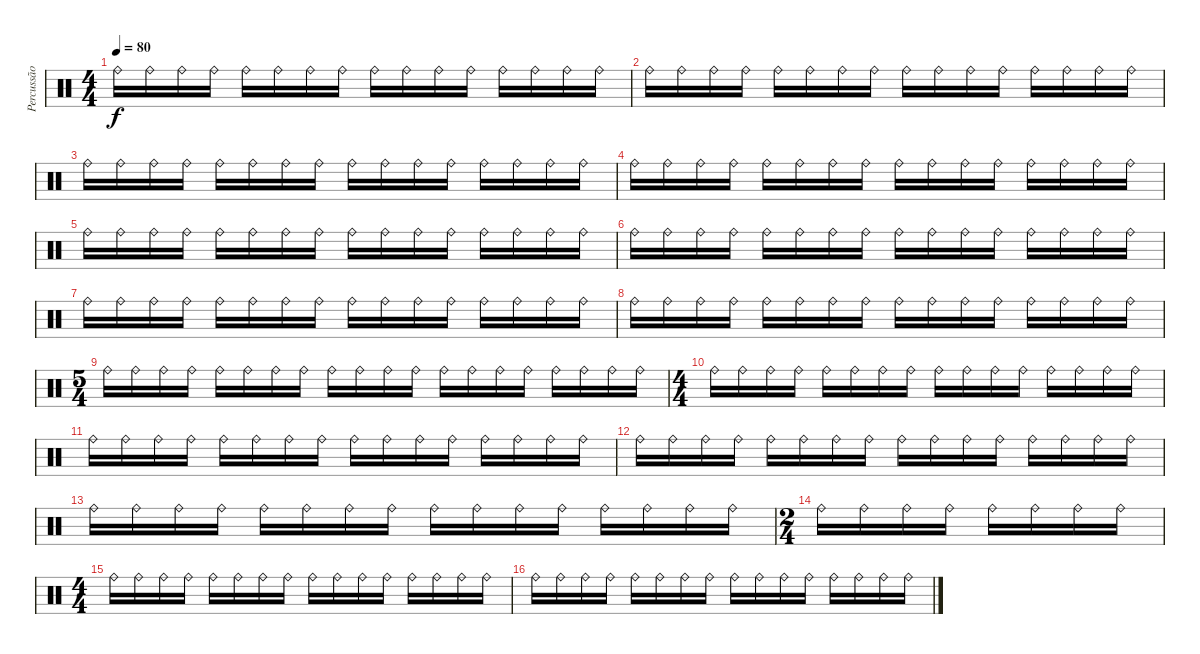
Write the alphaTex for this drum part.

\track ("Percussão" "Percussão") {instrument percussion}
\staff {score}
\articulation defaults
\ts (4 4)
\tempo 80
\clef neutral
\ks c "Ride (bell)".16{dy f} "Ride (bell)".16 "Ride (bell)".16 "Ride (bell)".16 "Ride (bell)".16 "Ride (bell)".16 "Ride (bell)".16 "Ride (bell)".16 "Ride (bell)".16 "Ride (bell)".16 "Ride (bell)".16 "Ride (bell)".16 "Ride (bell)".16 "Ride (bell)".16 "Ride (bell)".16 "Ride (bell)".16
|
"Ride (bell)".16 "Ride (bell)".16 "Ride (bell)".16 "Ride (bell)".16 "Ride (bell)".16 "Ride (bell)".16 "Ride (bell)".16 "Ride (bell)".16 "Ride (bell)".16 "Ride (bell)".16 "Ride (bell)".16 "Ride (bell)".16 "Ride (bell)".16 "Ride (bell)".16 "Ride (bell)".16 "Ride (bell)".16 |
"Ride (bell)".16 "Ride (bell)".16 "Ride (bell)".16 "Ride (bell)".16 "Ride (bell)".16 "Ride (bell)".16 "Ride (bell)".16 "Ride (bell)".16 "Ride (bell)".16 "Ride (bell)".16 "Ride (bell)".16 "Ride (bell)".16 "Ride (bell)".16 "Ride (bell)".16 "Ride (bell)".16 "Ride (bell)".16 |
"Ride (bell)".16 "Ride (bell)".16 "Ride (bell)".16 "Ride (bell)".16 "Ride (bell)".16 "Ride (bell)".16 "Ride (bell)".16 "Ride (bell)".16 "Ride (bell)".16 "Ride (bell)".16 "Ride (bell)".16 "Ride (bell)".16 "Ride (bell)".16 "Ride (bell)".16 "Ride (bell)".16 "Ride (bell)".16 |
"Ride (bell)".16 "Ride (bell)".16 "Ride (bell)".16 "Ride (bell)".16 "Ride (bell)".16 "Ride (bell)".16 "Ride (bell)".16 "Ride (bell)".16 "Ride (bell)".16 "Ride (bell)".16 "Ride (bell)".16 "Ride (bell)".16 "Ride (bell)".16 "Ride (bell)".16 "Ride (bell)".16 "Ride (bell)".16 |
"Ride (bell)".16 "Ride (bell)".16 "Ride (bell)".16 "Ride (bell)".16 "Ride (bell)".16 "Ride (bell)".16 "Ride (bell)".16 "Ride (bell)".16 "Ride (bell)".16 "Ride (bell)".16 "Ride (bell)".16 "Ride (bell)".16 "Ride (bell)".16 "Ride (bell)".16 "Ride (bell)".16 "Ride (bell)".16 |
"Ride (bell)".16 "Ride (bell)".16 "Ride (bell)".16 "Ride (bell)".16 "Ride (bell)".16 "Ride (bell)".16 "Ride (bell)".16 "Ride (bell)".16 "Ride (bell)".16 "Ride (bell)".16 "Ride (bell)".16 "Ride (bell)".16 "Ride (bell)".16 "Ride (bell)".16 "Ride (bell)".16 "Ride (bell)".16 |
"Ride (bell)".16 "Ride (bell)".16 "Ride (bell)".16 "Ride (bell)".16 "Ride (bell)".16 "Ride (bell)".16 "Ride (bell)".16 "Ride (bell)".16 "Ride (bell)".16 "Ride (bell)".16 "Ride (bell)".16 "Ride (bell)".16 "Ride (bell)".16 "Ride (bell)".16 "Ride (bell)".16 "Ride (bell)".16 |
\ts (5 4)
"Ride (bell)".16 "Ride (bell)".16 "Ride (bell)".16 "Ride (bell)".16 "Ride (bell)".16 "Ride (bell)".16 "Ride (bell)".16 "Ride (bell)".16 "Ride (bell)".16 "Ride (bell)".16 "Ride (bell)".16 "Ride (bell)".16 "Ride (bell)".16 "Ride (bell)".16 "Ride (bell)".16 "Ride (bell)".16 "Ride (bell)".16 "Ride (bell)".16 "Ride (bell)".16 "Ride (bell)".16 |
\ts (4 4)
"Ride (bell)".16 "Ride (bell)".16 "Ride (bell)".16 "Ride (bell)".16 "Ride (bell)".16 "Ride (bell)".16 "Ride (bell)".16 "Ride (bell)".16 "Ride (bell)".16 "Ride (bell)".16 "Ride (bell)".16 "Ride (bell)".16 "Ride (bell)".16 "Ride (bell)".16 "Ride (bell)".16 "Ride (bell)".16 |
"Ride (bell)".16 "Ride (bell)".16 "Ride (bell)".16 "Ride (bell)".16 "Ride (bell)".16 "Ride (bell)".16 "Ride (bell)".16 "Ride (bell)".16 "Ride (bell)".16 "Ride (bell)".16 "Ride (bell)".16 "Ride (bell)".16 "Ride (bell)".16 "Ride (bell)".16 "Ride (bell)".16 "Ride (bell)".16 |
"Ride (bell)".16 "Ride (bell)".16 "Ride (bell)".16 "Ride (bell)".16 "Ride (bell)".16 "Ride (bell)".16 "Ride (bell)".16 "Ride (bell)".16 "Ride (bell)".16 "Ride (bell)".16 "Ride (bell)".16 "Ride (bell)".16 "Ride (bell)".16 "Ride (bell)".16 "Ride (bell)".16 "Ride (bell)".16 |
"Ride (bell)".16 "Ride (bell)".16 "Ride (bell)".16 "Ride (bell)".16 "Ride (bell)".16 "Ride (bell)".16 "Ride (bell)".16 "Ride (bell)".16 "Ride (bell)".16 "Ride (bell)".16 "Ride (bell)".16 "Ride (bell)".16 "Ride (bell)".16 "Ride (bell)".16 "Ride (bell)".16 "Ride (bell)".16 |
\ts (2 4)
"Ride (bell)".16 "Ride (bell)".16 "Ride (bell)".16 "Ride (bell)".16 "Ride (bell)".16 "Ride (bell)".16 "Ride (bell)".16 "Ride (bell)".16 |
\ts (4 4)
"Ride (bell)".16 "Ride (bell)".16 "Ride (bell)".16 "Ride (bell)".16 "Ride (bell)".16 "Ride (bell)".16 "Ride (bell)".16 "Ride (bell)".16 "Ride (bell)".16 "Ride (bell)".16 "Ride (bell)".16 "Ride (bell)".16 "Ride (bell)".16 "Ride (bell)".16 "Ride (bell)".16 "Ride (bell)".16 |
"Ride (bell)".16 "Ride (bell)".16 "Ride (bell)".16 "Ride (bell)".16 "Ride (bell)".16 "Ride (bell)".16 "Ride (bell)".16 "Ride (bell)".16 "Ride (bell)".16 "Ride (bell)".16 "Ride (bell)".16 "Ride (bell)".16 "Ride (bell)".16 "Ride (bell)".16 "Ride (bell)".16 "Ride (bell)".16
